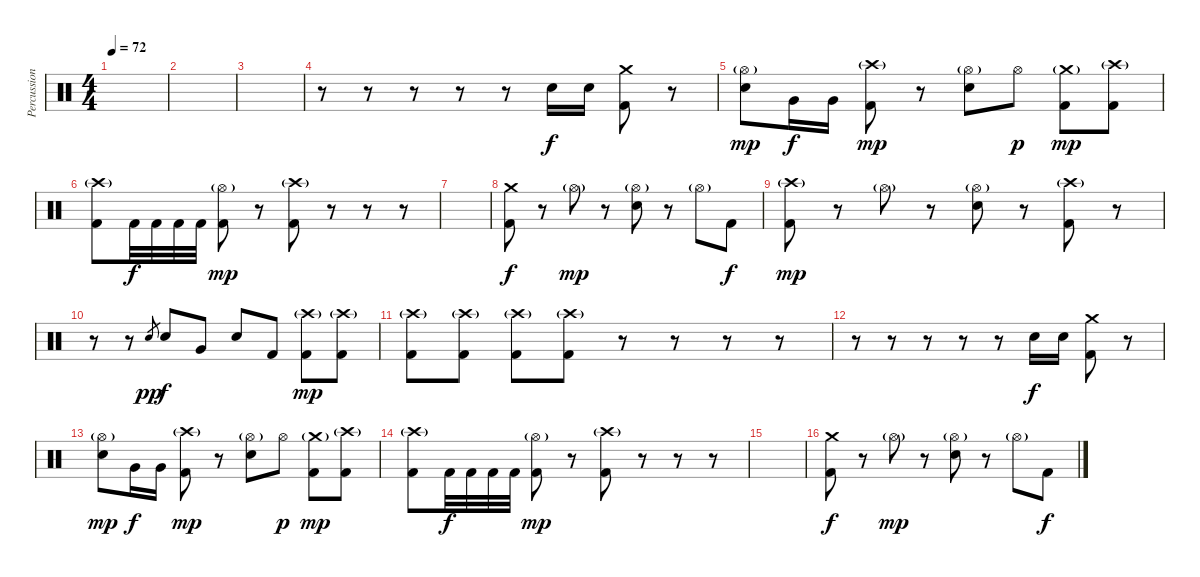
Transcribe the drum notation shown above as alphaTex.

\track ("Percussion" "Percussion") {instrument percussion}
\staff {score}
\articulation defaults
\ts (4 4)
\tempo 72
\clef neutral
\ks c
|
|
|
r.8 r.8 r.8 r.8 r.8 "Electric Snare (hit)".16 "Electric Snare (hit)".16 ("Crash medium (hit)" "Kick (hit) 2").8 r.8 |
\section ("" "")
("Hi-Hat (open)"{g} "Electric Snare (hit)").8{dy mp} "Very Low Tom (hit)".16{dy f} "Very Low Tom (hit)".16 ("Crash high (hit)"{g} "Kick (hit) 2").8{dy mp} r.8 ("Hi-Hat (open)"{g} "Electric Snare (hit)").8 "Hi-Hat (open)".8{dy p} ("Crash medium (hit)"{g} "Kick (hit) 2").8{dy mp} ("Crash high (hit)"{g} "Kick (hit) 2").8 |
("Crash high (hit)"{g} "Kick (hit) 2").8 "Kick (hit) 2".32{dy f} "Kick (hit) 2".32 "Kick (hit) 2".32 "Kick (hit) 2".32 ("Hi-Hat (open)"{g} "Kick (hit) 2").8{dy mp} r.8 ("Crash high (hit)"{g} "Kick (hit) 2").8 r.8 r.8 r.8 |
|
("Crash medium (hit)" "Kick (hit) 2").8{dy f} r.8 "Hi-Hat (open)"{g}.8{dy mp} r.8 ("Hi-Hat (open)"{g} "Electric Snare (hit)").8 r.8 "Hi-Hat (open)"{g}.8 "Kick (hit) 2".8{dy f} |
("Crash high (hit)"{g} "Kick (hit) 2").8{dy mp} r.8 "Hi-Hat (open)"{g}.8 r.8 ("Hi-Hat (open)"{g} "Electric Snare (hit)").8 r.8 ("Crash high (hit)"{g} "Kick (hit) 2").8 r.8 |
r.8 r.8 "Electric Snare (hit)".8{gr dy pp} "Electric Snare (hit)".8{dy f} "Very Low Tom (hit)".8 "Electric Snare (hit)".8 "Kick (hit) 2".8 ("Crash high (hit)"{g} "Kick (hit) 2").8{dy mp} ("Crash high (hit)"{g} "Kick (hit) 2").8 |
("Crash high (hit)"{g} "Kick (hit) 2").8 ("Crash high (hit)"{g} "Kick (hit) 2").8 ("Crash high (hit)"{g} "Kick (hit) 2").8 ("Crash high (hit)"{g} "Kick (hit) 2").8 r.8 r.8 r.8 r.8 |
r.8 r.8 r.8 r.8 r.8 "Electric Snare (hit)".16{dy f} "Electric Snare (hit)".16 ("Crash medium (hit)" "Kick (hit) 2").8 r.8 |
("Hi-Hat (open)"{g} "Electric Snare (hit)").8{dy mp} "Very Low Tom (hit)".16{dy f} "Very Low Tom (hit)".16 ("Crash high (hit)"{g} "Kick (hit) 2").8{dy mp} r.8 ("Hi-Hat (open)"{g} "Electric Snare (hit)").8 "Hi-Hat (open)".8{dy p} ("Crash medium (hit)"{g} "Kick (hit) 2").8{dy mp} ("Crash high (hit)"{g} "Kick (hit) 2").8 |
("Crash high (hit)"{g} "Kick (hit) 2").8 "Kick (hit) 2".32{dy f} "Kick (hit) 2".32 "Kick (hit) 2".32 "Kick (hit) 2".32 ("Hi-Hat (open)"{g} "Kick (hit) 2").8{dy mp} r.8 ("Crash high (hit)"{g} "Kick (hit) 2").8 r.8 r.8 r.8 |
|
("Crash medium (hit)" "Kick (hit) 2").8{dy f} r.8 "Hi-Hat (open)"{g}.8{dy mp} r.8 ("Hi-Hat (open)"{g} "Electric Snare (hit)").8 r.8 "Hi-Hat (open)"{g}.8 "Kick (hit) 2".8{dy f}
